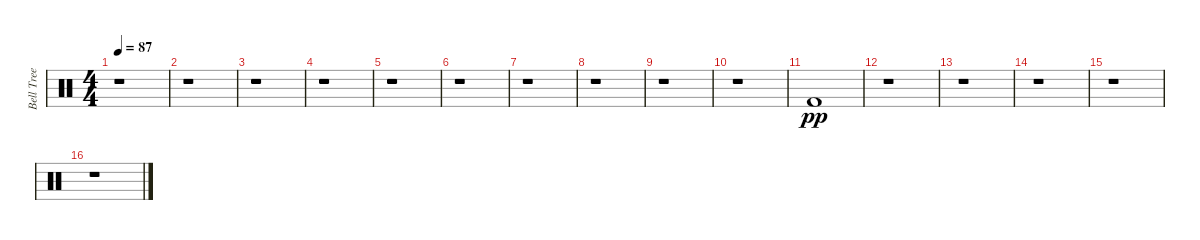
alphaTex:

\track ("Bell Tree" "Bell Tree") {instrument percussion}
\staff {score}
\articulation defaults
\ts (4 4)
\tempo 87
\clef neutral
\ks c
r.1{dy pp} |
r.1 |
r.1 |
r.1 |
r.1 |
r.1 |
r.1 |
r.1 |
r.1 |
r.1 |
"Kick (hit) 2".1 |
r.1 |
r.1 |
r.1 |
r.1 |
r.1
